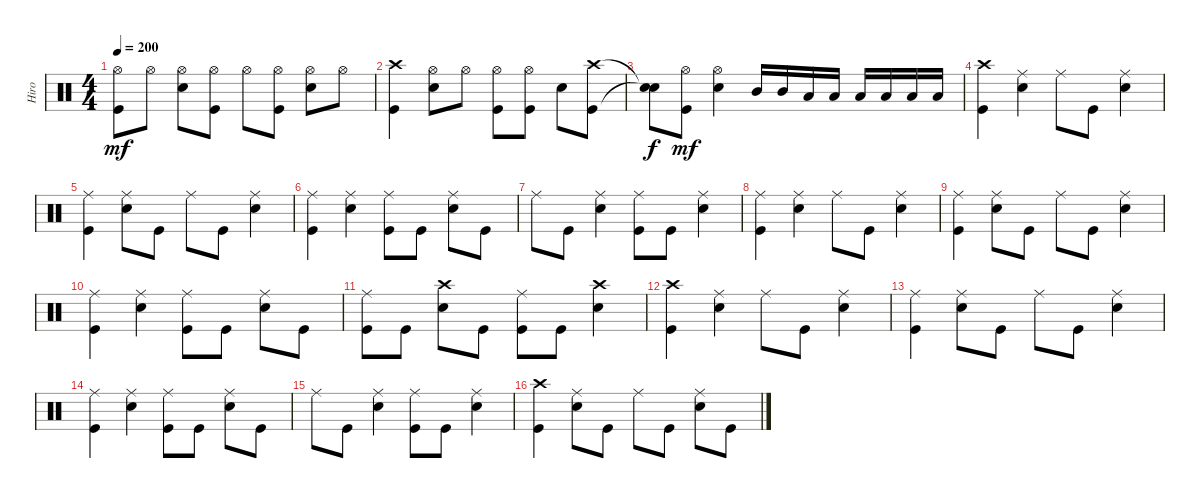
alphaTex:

\track ("Hiro" "Hiro") {instrument percussion}
\staff {score}
\articulation defaults
\ts (4 4)
\tempo 200
\clef neutral
\ks c
("Hi-Hat (open)" "Kick (hit)").8{dy mf} "Hi-Hat (open)".8 ("Hi-Hat (open)" "Electric Snare (hit)").8 ("Hi-Hat (open)" "Kick (hit)").8 "Hi-Hat (open)".8 ("Hi-Hat (open)" "Kick (hit)").8 ("Hi-Hat (open)" "Electric Snare (hit)").8 "Hi-Hat (open)".8 |
("Crash high (hit)" "Kick (hit)").4 ("Hi-Hat (open)" "Electric Snare (hit)").8 "Hi-Hat (open)".8 ("Hi-Hat (open)" "Kick (hit)").8 ("Hi-Hat (open)" "Kick (hit)").8 "Electric Snare (hit)".8 ("Kick (hit)" "Crash high (hit)").8 |
("Snare (hit)"{t} "Snare (hit)"{t}).8{dy f} ("Hi-Hat (open)" "Kick (hit)").8{dy mf} ("Hi-Hat (open)" "Electric Snare (hit)").4 "Mid Tom (hit)".16 "Mid Tom (hit)".16 "Low Tom (hit)".16 "Low Tom (hit)".16 "Low Tom (hit)".16 "Low Tom (hit)".16 "Low Tom (hit)".16 "Low Tom (hit)".16 |
("Kick (hit)" "Crash high (hit)").4 ("Electric Snare (hit)" "Ride (middle)").4 "Ride (middle)".8 "Kick (hit)".8 ("Electric Snare (hit)" "Ride (middle)").4 |
("Kick (hit)" "Ride (middle)").4 ("Electric Snare (hit)" "Ride (middle)").8 "Kick (hit)".8 "Ride (middle)".8 "Kick (hit)".8 ("Electric Snare (hit)" "Ride (middle)").4 |
("Kick (hit)" "Ride (middle)").4 ("Electric Snare (hit)" "Ride (middle)").4 ("Kick (hit)" "Ride (middle)").8 "Kick (hit)".8 ("Electric Snare (hit)" "Ride (middle)").8 "Kick (hit)".8 |
"Ride (middle)".8 "Kick (hit)".8 ("Electric Snare (hit)" "Ride (middle)").4 ("Kick (hit)" "Ride (middle)").8 "Kick (hit)".8 ("Electric Snare (hit)" "Ride (middle)").4 |
("Ride (middle)" "Kick (hit)").4 ("Ride (middle)" "Electric Snare (hit)").4 "Ride (middle)".8 "Kick (hit)".8 ("Ride (middle)" "Electric Snare (hit)").4 |
("Ride (middle)" "Kick (hit)").4 ("Ride (middle)" "Electric Snare (hit)").8 "Kick (hit)".8 "Ride (middle)".8 "Kick (hit)".8 ("Ride (middle)" "Electric Snare (hit)").4 |
("Ride (middle)" "Kick (hit)").4 ("Ride (middle)" "Electric Snare (hit)").4 ("Ride (middle)" "Kick (hit)").8 "Kick (hit)".8 ("Ride (middle)" "Electric Snare (hit)").8 "Kick (hit)".8 |
("Ride (middle)" "Kick (hit)").8 "Kick (hit)".8 ("Crash high (hit)" "Electric Snare (hit)").8 "Kick (hit)".8 ("Ride (middle)" "Kick (hit)").8 "Kick (hit)".8 ("Crash high (hit)" "Electric Snare (hit)").4 |
("Crash high (hit)" "Kick (hit)").4 ("Ride (middle)" "Electric Snare (hit)").4 "Ride (middle)".8 "Kick (hit)".8 ("Ride (middle)" "Electric Snare (hit)").4 |
("Ride (middle)" "Kick (hit)").4 ("Ride (middle)" "Electric Snare (hit)").8 "Kick (hit)".8 "Ride (middle)".8 "Kick (hit)".8 ("Ride (middle)" "Electric Snare (hit)").4 |
("Ride (middle)" "Kick (hit)").4 ("Ride (middle)" "Electric Snare (hit)").4 ("Ride (middle)" "Kick (hit)").8 "Kick (hit)".8 ("Ride (middle)" "Electric Snare (hit)").8 "Kick (hit)".8 |
"Ride (middle)".8 "Kick (hit)".8 ("Ride (middle)" "Electric Snare (hit)").4 ("Ride (middle)" "Kick (hit)").8 "Kick (hit)".8 ("Ride (middle)" "Electric Snare (hit)").4 |
("Kick (hit)" "Crash high (hit)").4 ("Electric Snare (hit)" "Ride (middle)").8 "Kick (hit)".8 "Ride (middle)".8 "Kick (hit)".8 ("Electric Snare (hit)" "Ride (middle)").8 "Kick (hit)".8
